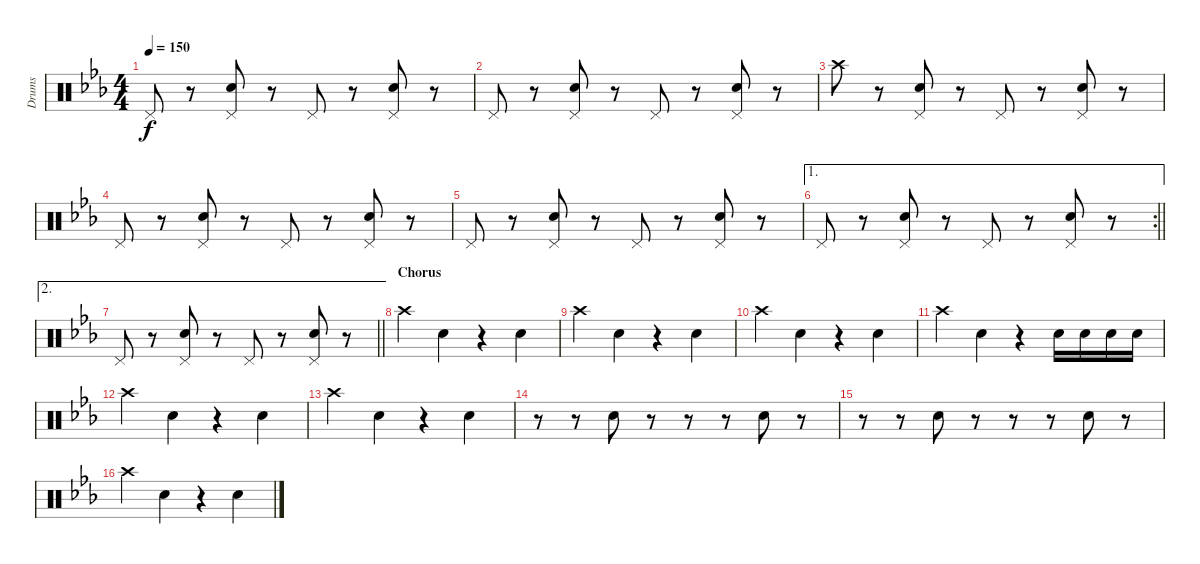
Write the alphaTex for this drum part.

\track ("Drums" "Drums") {instrument percussion}
\staff {score}
\articulation defaults
\ts (4 4)
\tempo 150
\clef neutral
\ks cminor "Pedal Hi-Hat (hit)".8{dy f}
r.8 ("Pedal Hi-Hat (hit)" "Electric Snare (hit)").8 r.8 "Pedal Hi-Hat (hit)".8 r.8 ("Pedal Hi-Hat (hit)" "Electric Snare (hit)").8 r.8 |
"Pedal Hi-Hat (hit)".8 r.8 ("Pedal Hi-Hat (hit)" "Electric Snare (hit)").8 r.8 "Pedal Hi-Hat (hit)".8 r.8 ("Pedal Hi-Hat (hit)" "Electric Snare (hit)").8 r.8 |
"Crash high (hit)".8 r.8 ("Pedal Hi-Hat (hit)" "Electric Snare (hit)").8 r.8 "Pedal Hi-Hat (hit)".8 r.8 ("Pedal Hi-Hat (hit)" "Electric Snare (hit)").8 r.8 |
"Pedal Hi-Hat (hit)".8 r.8 ("Pedal Hi-Hat (hit)" "Electric Snare (hit)").8 r.8 "Pedal Hi-Hat (hit)".8 r.8 ("Pedal Hi-Hat (hit)" "Electric Snare (hit)").8 r.8 |
"Pedal Hi-Hat (hit)".8 r.8 ("Pedal Hi-Hat (hit)" "Electric Snare (hit)").8 r.8 "Pedal Hi-Hat (hit)".8 r.8 ("Pedal Hi-Hat (hit)" "Electric Snare (hit)").8 r.8 |
\ae 1
\rc 2
\barLineRight lightlight "Pedal Hi-Hat (hit)".8
r.8 ("Pedal Hi-Hat (hit)" "Electric Snare (hit)").8 r.8 "Pedal Hi-Hat (hit)".8 r.8 ("Pedal Hi-Hat (hit)" "Electric Snare (hit)").8 r.8 |
\ae 2
\barLineRight lightlight "Pedal Hi-Hat (hit)".8
r.8 ("Pedal Hi-Hat (hit)" "Electric Snare (hit)").8 r.8 "Pedal Hi-Hat (hit)".8 r.8 ("Pedal Hi-Hat (hit)" "Electric Snare (hit)").8 r.8 |
\section ("" "Chorus")
"Crash high (hit)".4 "Electric Snare (hit)".4 r.4 "Electric Snare (hit)".4 |
"Crash high (hit)".4 "Electric Snare (hit)".4 r.4 "Electric Snare (hit)".4 |
"Crash high (hit)".4 "Electric Snare (hit)".4 r.4 "Electric Snare (hit)".4 |
"Crash high (hit)".4 "Electric Snare (hit)".4 r.4 "Electric Snare (hit)".16 "Electric Snare (hit)".16 "Electric Snare (hit)".16 "Electric Snare (hit)".16 |
"Crash high (hit)".4 "Electric Snare (hit)".4 r.4 "Electric Snare (hit)".4 |
"Crash high (hit)".4 "Electric Snare (hit)".4 r.4 "Electric Snare (hit)".4 |
r.8 r.8 "Electric Snare (hit)".8 r.8 r.8 r.8 "Electric Snare (hit)".8 r.8 |
r.8 r.8 "Electric Snare (hit)".8 r.8 r.8 r.8 "Electric Snare (hit)".8 r.8 |
"Crash high (hit)".4 "Electric Snare (hit)".4 r.4 "Electric Snare (hit)".4
